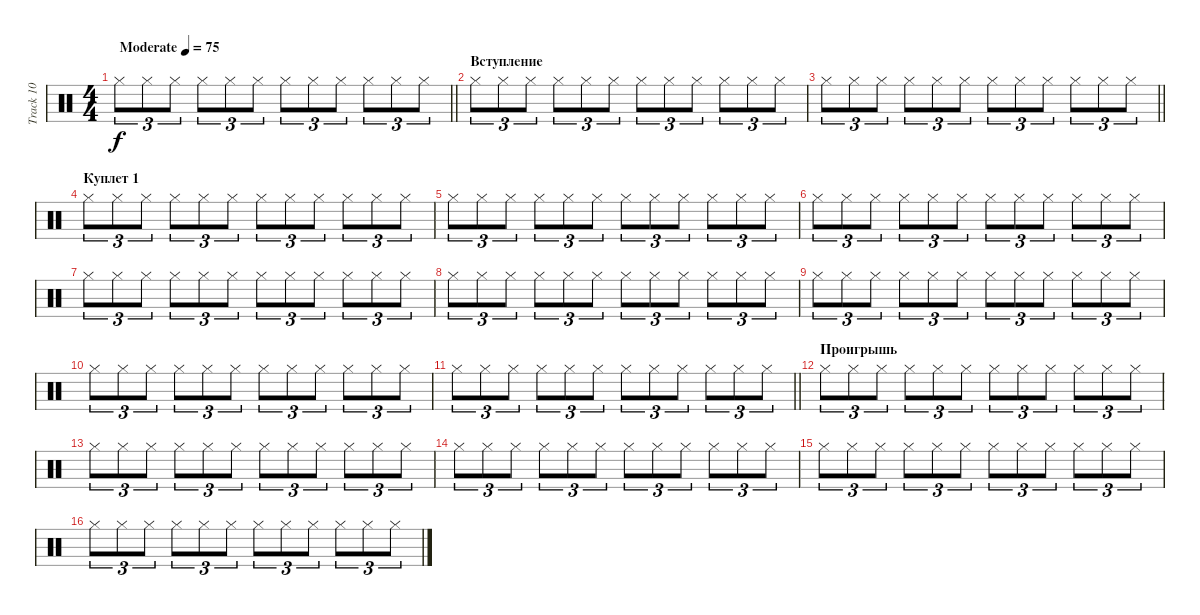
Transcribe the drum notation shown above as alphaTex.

\track ("Track 10" "Track 10") {instrument percussion}
\staff {score}
\articulation defaults
\ts (4 4)
\tempo (75 "Moderate")
\clef neutral
\barLineRight lightlight
\ks c "Hi-Hat (closed)".8{tu (3 2) dy f} "Hi-Hat (closed)".8{tu (3 2)} "Hi-Hat (closed)".8{tu (3 2)} "Hi-Hat (closed)".8{tu (3 2)} "Hi-Hat (closed)".8{tu (3 2)} "Hi-Hat (closed)".8{tu (3 2)} "Hi-Hat (closed)".8{tu (3 2)} "Hi-Hat (closed)".8{tu (3 2)} "Hi-Hat (closed)".8{tu (3 2)} "Hi-Hat (closed)".8{tu (3 2)} "Hi-Hat (closed)".8{tu (3 2)} "Hi-Hat (closed)".8{tu (3 2)}
|
\section ("" "Вступление")
"Hi-Hat (closed)".8{tu (3 2)} "Hi-Hat (closed)".8{tu (3 2)} "Hi-Hat (closed)".8{tu (3 2)} "Hi-Hat (closed)".8{tu (3 2)} "Hi-Hat (closed)".8{tu (3 2)} "Hi-Hat (closed)".8{tu (3 2)} "Hi-Hat (closed)".8{tu (3 2)} "Hi-Hat (closed)".8{tu (3 2)} "Hi-Hat (closed)".8{tu (3 2)} "Hi-Hat (closed)".8{tu (3 2)} "Hi-Hat (closed)".8{tu (3 2)} "Hi-Hat (closed)".8{tu (3 2)} |
\barLineRight lightlight "Hi-Hat (closed)".8{tu (3 2)} "Hi-Hat (closed)".8{tu (3 2)} "Hi-Hat (closed)".8{tu (3 2)} "Hi-Hat (closed)".8{tu (3 2)} "Hi-Hat (closed)".8{tu (3 2)} "Hi-Hat (closed)".8{tu (3 2)} "Hi-Hat (closed)".8{tu (3 2)} "Hi-Hat (closed)".8{tu (3 2)} "Hi-Hat (closed)".8{tu (3 2)} "Hi-Hat (closed)".8{tu (3 2)} "Hi-Hat (closed)".8{tu (3 2)} "Hi-Hat (closed)".8{tu (3 2)}
|
\section ("" "Куплет 1")
"Hi-Hat (closed)".8{tu (3 2)} "Hi-Hat (closed)".8{tu (3 2)} "Hi-Hat (closed)".8{tu (3 2)} "Hi-Hat (closed)".8{tu (3 2)} "Hi-Hat (closed)".8{tu (3 2)} "Hi-Hat (closed)".8{tu (3 2)} "Hi-Hat (closed)".8{tu (3 2)} "Hi-Hat (closed)".8{tu (3 2)} "Hi-Hat (closed)".8{tu (3 2)} "Hi-Hat (closed)".8{tu (3 2)} "Hi-Hat (closed)".8{tu (3 2)} "Hi-Hat (closed)".8{tu (3 2)} |
"Hi-Hat (closed)".8{tu (3 2)} "Hi-Hat (closed)".8{tu (3 2)} "Hi-Hat (closed)".8{tu (3 2)} "Hi-Hat (closed)".8{tu (3 2)} "Hi-Hat (closed)".8{tu (3 2)} "Hi-Hat (closed)".8{tu (3 2)} "Hi-Hat (closed)".8{tu (3 2)} "Hi-Hat (closed)".8{tu (3 2)} "Hi-Hat (closed)".8{tu (3 2)} "Hi-Hat (closed)".8{tu (3 2)} "Hi-Hat (closed)".8{tu (3 2)} "Hi-Hat (closed)".8{tu (3 2)} |
"Hi-Hat (closed)".8{tu (3 2)} "Hi-Hat (closed)".8{tu (3 2)} "Hi-Hat (closed)".8{tu (3 2)} "Hi-Hat (closed)".8{tu (3 2)} "Hi-Hat (closed)".8{tu (3 2)} "Hi-Hat (closed)".8{tu (3 2)} "Hi-Hat (closed)".8{tu (3 2)} "Hi-Hat (closed)".8{tu (3 2)} "Hi-Hat (closed)".8{tu (3 2)} "Hi-Hat (closed)".8{tu (3 2)} "Hi-Hat (closed)".8{tu (3 2)} "Hi-Hat (closed)".8{tu (3 2)} |
"Hi-Hat (closed)".8{tu (3 2)} "Hi-Hat (closed)".8{tu (3 2)} "Hi-Hat (closed)".8{tu (3 2)} "Hi-Hat (closed)".8{tu (3 2)} "Hi-Hat (closed)".8{tu (3 2)} "Hi-Hat (closed)".8{tu (3 2)} "Hi-Hat (closed)".8{tu (3 2)} "Hi-Hat (closed)".8{tu (3 2)} "Hi-Hat (closed)".8{tu (3 2)} "Hi-Hat (closed)".8{tu (3 2)} "Hi-Hat (closed)".8{tu (3 2)} "Hi-Hat (closed)".8{tu (3 2)} |
"Hi-Hat (closed)".8{tu (3 2)} "Hi-Hat (closed)".8{tu (3 2)} "Hi-Hat (closed)".8{tu (3 2)} "Hi-Hat (closed)".8{tu (3 2)} "Hi-Hat (closed)".8{tu (3 2)} "Hi-Hat (closed)".8{tu (3 2)} "Hi-Hat (closed)".8{tu (3 2)} "Hi-Hat (closed)".8{tu (3 2)} "Hi-Hat (closed)".8{tu (3 2)} "Hi-Hat (closed)".8{tu (3 2)} "Hi-Hat (closed)".8{tu (3 2)} "Hi-Hat (closed)".8{tu (3 2)} |
"Hi-Hat (closed)".8{tu (3 2)} "Hi-Hat (closed)".8{tu (3 2)} "Hi-Hat (closed)".8{tu (3 2)} "Hi-Hat (closed)".8{tu (3 2)} "Hi-Hat (closed)".8{tu (3 2)} "Hi-Hat (closed)".8{tu (3 2)} "Hi-Hat (closed)".8{tu (3 2)} "Hi-Hat (closed)".8{tu (3 2)} "Hi-Hat (closed)".8{tu (3 2)} "Hi-Hat (closed)".8{tu (3 2)} "Hi-Hat (closed)".8{tu (3 2)} "Hi-Hat (closed)".8{tu (3 2)} |
"Hi-Hat (closed)".8{tu (3 2)} "Hi-Hat (closed)".8{tu (3 2)} "Hi-Hat (closed)".8{tu (3 2)} "Hi-Hat (closed)".8{tu (3 2)} "Hi-Hat (closed)".8{tu (3 2)} "Hi-Hat (closed)".8{tu (3 2)} "Hi-Hat (closed)".8{tu (3 2)} "Hi-Hat (closed)".8{tu (3 2)} "Hi-Hat (closed)".8{tu (3 2)} "Hi-Hat (closed)".8{tu (3 2)} "Hi-Hat (closed)".8{tu (3 2)} "Hi-Hat (closed)".8{tu (3 2)} |
\barLineRight lightlight "Hi-Hat (closed)".8{tu (3 2)} "Hi-Hat (closed)".8{tu (3 2)} "Hi-Hat (closed)".8{tu (3 2)} "Hi-Hat (closed)".8{tu (3 2)} "Hi-Hat (closed)".8{tu (3 2)} "Hi-Hat (closed)".8{tu (3 2)} "Hi-Hat (closed)".8{tu (3 2)} "Hi-Hat (closed)".8{tu (3 2)} "Hi-Hat (closed)".8{tu (3 2)} "Hi-Hat (closed)".8{tu (3 2)} "Hi-Hat (closed)".8{tu (3 2)} "Hi-Hat (closed)".8{tu (3 2)}
|
\section ("" "Проигрышь")
"Hi-Hat (closed)".8{tu (3 2)} "Hi-Hat (closed)".8{tu (3 2)} "Hi-Hat (closed)".8{tu (3 2)} "Hi-Hat (closed)".8{tu (3 2)} "Hi-Hat (closed)".8{tu (3 2)} "Hi-Hat (closed)".8{tu (3 2)} "Hi-Hat (closed)".8{tu (3 2)} "Hi-Hat (closed)".8{tu (3 2)} "Hi-Hat (closed)".8{tu (3 2)} "Hi-Hat (closed)".8{tu (3 2)} "Hi-Hat (closed)".8{tu (3 2)} "Hi-Hat (closed)".8{tu (3 2)} |
"Hi-Hat (closed)".8{tu (3 2)} "Hi-Hat (closed)".8{tu (3 2)} "Hi-Hat (closed)".8{tu (3 2)} "Hi-Hat (closed)".8{tu (3 2)} "Hi-Hat (closed)".8{tu (3 2)} "Hi-Hat (closed)".8{tu (3 2)} "Hi-Hat (closed)".8{tu (3 2)} "Hi-Hat (closed)".8{tu (3 2)} "Hi-Hat (closed)".8{tu (3 2)} "Hi-Hat (closed)".8{tu (3 2)} "Hi-Hat (closed)".8{tu (3 2)} "Hi-Hat (closed)".8{tu (3 2)} |
"Hi-Hat (closed)".8{tu (3 2)} "Hi-Hat (closed)".8{tu (3 2)} "Hi-Hat (closed)".8{tu (3 2)} "Hi-Hat (closed)".8{tu (3 2)} "Hi-Hat (closed)".8{tu (3 2)} "Hi-Hat (closed)".8{tu (3 2)} "Hi-Hat (closed)".8{tu (3 2)} "Hi-Hat (closed)".8{tu (3 2)} "Hi-Hat (closed)".8{tu (3 2)} "Hi-Hat (closed)".8{tu (3 2)} "Hi-Hat (closed)".8{tu (3 2)} "Hi-Hat (closed)".8{tu (3 2)} |
"Hi-Hat (closed)".8{tu (3 2)} "Hi-Hat (closed)".8{tu (3 2)} "Hi-Hat (closed)".8{tu (3 2)} "Hi-Hat (closed)".8{tu (3 2)} "Hi-Hat (closed)".8{tu (3 2)} "Hi-Hat (closed)".8{tu (3 2)} "Hi-Hat (closed)".8{tu (3 2)} "Hi-Hat (closed)".8{tu (3 2)} "Hi-Hat (closed)".8{tu (3 2)} "Hi-Hat (closed)".8{tu (3 2)} "Hi-Hat (closed)".8{tu (3 2)} "Hi-Hat (closed)".8{tu (3 2)} |
"Hi-Hat (closed)".8{tu (3 2)} "Hi-Hat (closed)".8{tu (3 2)} "Hi-Hat (closed)".8{tu (3 2)} "Hi-Hat (closed)".8{tu (3 2)} "Hi-Hat (closed)".8{tu (3 2)} "Hi-Hat (closed)".8{tu (3 2)} "Hi-Hat (closed)".8{tu (3 2)} "Hi-Hat (closed)".8{tu (3 2)} "Hi-Hat (closed)".8{tu (3 2)} "Hi-Hat (closed)".8{tu (3 2)} "Hi-Hat (closed)".8{tu (3 2)} "Hi-Hat (closed)".8{tu (3 2)}
